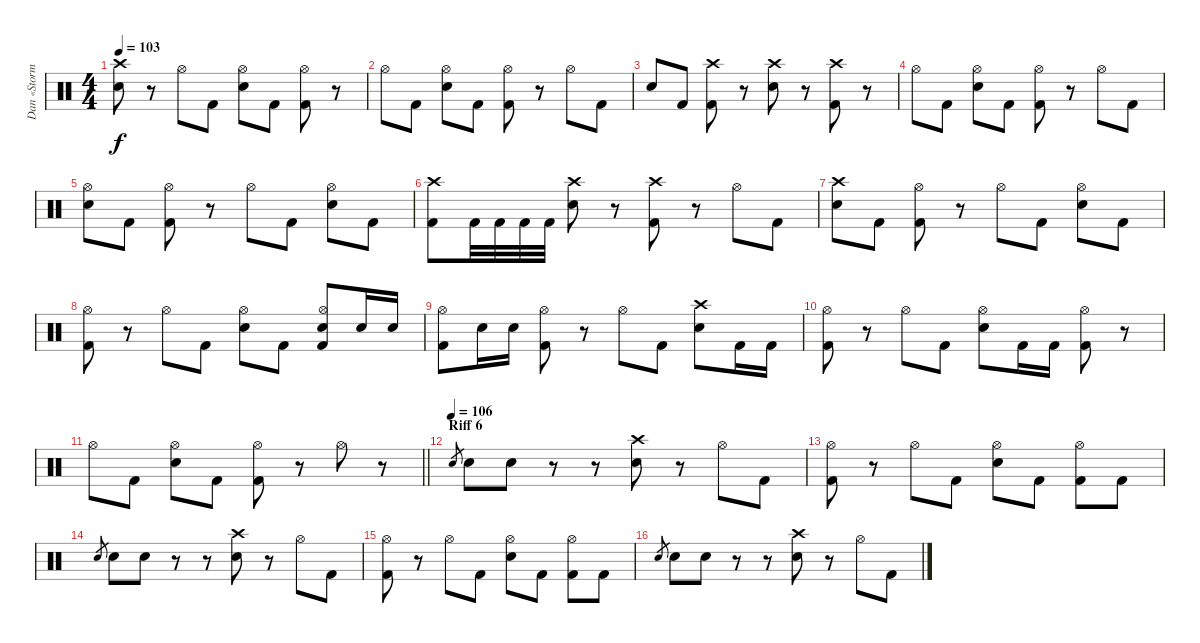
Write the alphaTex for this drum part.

\track ("Dan «Storm» Mullins" "Dan «Storm") {instrument percussion}
\staff {score}
\articulation defaults
\ts (4 4)
\tempo 103
\clef neutral
\ks c
("Crash high (hit)" "Electric Snare (hit)").8{dy f} r.8 "Hi-Hat (open)".8 "Kick (hit) 2".8 ("Hi-Hat (open)" "Electric Snare (hit)").8 "Kick (hit) 2".8 ("Hi-Hat (open)" "Kick (hit) 2").8 r.8 |
"Hi-Hat (open)".8 "Kick (hit) 2".8 ("Hi-Hat (open)" "Electric Snare (hit)").8 "Kick (hit) 2".8 ("Hi-Hat (open)" "Kick (hit) 2").8 r.8 "Hi-Hat (open)".8 "Kick (hit) 2".8 |
"Electric Snare (hit)".8 "Kick (hit) 2".8 ("Crash high (hit)" "Kick (hit) 2").8 r.8 ("Crash high (hit)" "Electric Snare (hit)").8 r.8 ("Crash high (hit)" "Kick (hit) 2").8 r.8 |
"Hi-Hat (open)".8 "Kick (hit) 2".8 ("Hi-Hat (open)" "Electric Snare (hit)").8 "Kick (hit) 2".8 ("Hi-Hat (open)" "Kick (hit) 2").8 r.8 "Hi-Hat (open)".8 "Kick (hit) 2".8 |
("Hi-Hat (open)" "Electric Snare (hit)").8 "Kick (hit) 2".8 ("Hi-Hat (open)" "Kick (hit) 2").8 r.8 "Hi-Hat (open)".8 "Kick (hit) 2".8 ("Hi-Hat (open)" "Electric Snare (hit)").8 "Kick (hit) 2".8 |
("Crash high (hit)" "Kick (hit) 2").8 "Kick (hit) 2".32 "Kick (hit) 2".32 "Kick (hit) 2".32 "Kick (hit) 2".32 ("Crash high (hit)" "Electric Snare (hit)").8 r.8 ("Crash high (hit)" "Kick (hit) 2").8 r.8 "Hi-Hat (open)".8 "Kick (hit) 2".8 |
("Crash high (hit)" "Electric Snare (hit)").8 "Kick (hit) 2".8 ("Hi-Hat (open)" "Kick (hit) 2").8 r.8 "Hi-Hat (open)".8 "Kick (hit) 2".8 ("Hi-Hat (open)" "Electric Snare (hit)").8 "Kick (hit) 2".8 |
("Hi-Hat (open)" "Kick (hit) 2").8 r.8 "Hi-Hat (open)".8 "Kick (hit) 2".8 ("Hi-Hat (open)" "Electric Snare (hit)").8 "Kick (hit) 2".8 ("Hi-Hat (open)" "Electric Snare (hit)" "Kick (hit) 2").8 "Electric Snare (hit)".16 "Electric Snare (hit)".16 |
("Hi-Hat (open)" "Kick (hit) 2").8 "Electric Snare (hit)".16 "Electric Snare (hit)".16 ("Hi-Hat (open)" "Kick (hit) 2").8 r.8 "Hi-Hat (open)".8 "Kick (hit) 2".8 ("Crash high (hit)" "Electric Snare (hit)").8 "Kick (hit) 2".16 "Kick (hit) 2".16 |
("Hi-Hat (open)" "Kick (hit) 2").8 r.8 "Hi-Hat (open)".8 "Kick (hit) 2".8 ("Hi-Hat (open)" "Electric Snare (hit)").8 "Kick (hit) 2".16 "Kick (hit) 2".16 ("Hi-Hat (open)" "Kick (hit) 2").8 r.8 |
\barLineRight lightlight "Hi-Hat (open)".8 "Kick (hit) 2".8
("Hi-Hat (open)" "Electric Snare (hit)").8 "Kick (hit) 2".8 ("Hi-Hat (open)" "Kick (hit) 2").8 r.8 "Hi-Hat (open)".8 r.8 |
\section ("" "Riff 6")
\tempo (106)
"Electric Snare (hit)".8{gr} "Electric Snare (hit)".8 "Electric Snare (hit)".8 r.8 r.8 ("Crash high (hit)" "Electric Snare (hit)").8 r.8 "Hi-Hat (open)".8 "Kick (hit) 2".8 |
("Hi-Hat (open)" "Kick (hit) 2").8 r.8 "Hi-Hat (open)".8 "Kick (hit) 2".8 ("Hi-Hat (open)" "Electric Snare (hit)").8 "Kick (hit) 2".8 ("Hi-Hat (open)" "Kick (hit) 2").8 "Kick (hit) 2".8 |
"Electric Snare (hit)".8{gr} "Electric Snare (hit)".8 "Electric Snare (hit)".8 r.8 r.8 ("Crash high (hit)" "Electric Snare (hit)").8 r.8 "Hi-Hat (open)".8 "Kick (hit) 2".8 |
("Hi-Hat (open)" "Kick (hit) 2").8 r.8 "Hi-Hat (open)".8 "Kick (hit) 2".8 ("Hi-Hat (open)" "Electric Snare (hit)").8 "Kick (hit) 2".8 ("Hi-Hat (open)" "Kick (hit) 2").8 "Kick (hit) 2".8 |
"Electric Snare (hit)".8{gr} "Electric Snare (hit)".8 "Electric Snare (hit)".8 r.8 r.8 ("Crash high (hit)" "Electric Snare (hit)").8 r.8 "Hi-Hat (open)".8 "Kick (hit) 2".8
